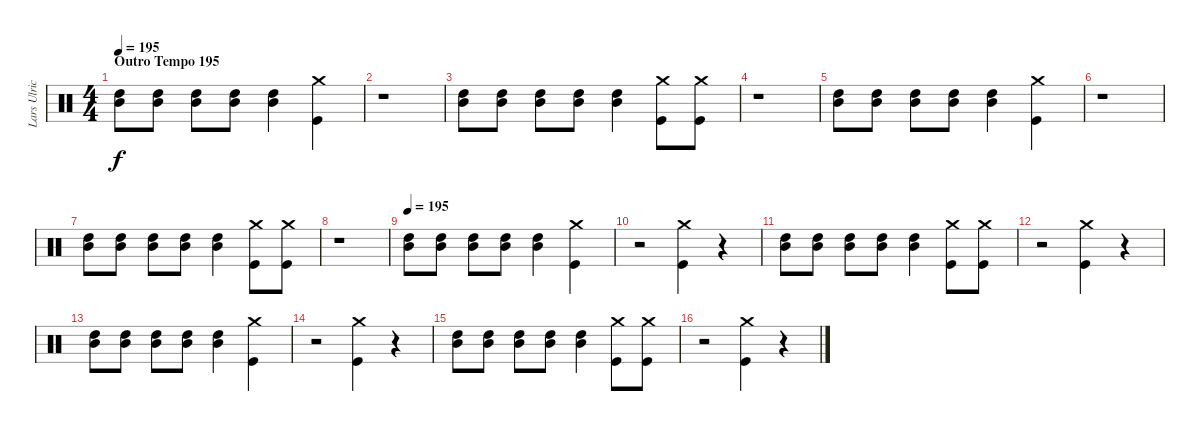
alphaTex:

\track ("Lars Ulrich (Drums)" "Lars Ulric") {instrument percussion}
\staff {score}
\articulation defaults
\ts (4 4)
\section ("" "Outro Tempo 195")
\tempo 195
\clef neutral
\ks c
("High Tom (hit)" "Mid Tom (hit)").8{dy f} ("High Tom (hit)" "Mid Tom (hit)").8 ("High Tom (hit)" "Mid Tom (hit)").8 ("High Tom (hit)" "Mid Tom (hit)").8 ("High Tom (hit)" "Mid Tom (hit)").4 ("Crash medium (hit)" "Kick (hit)").4 |
r.1 |
("High Tom (hit)" "Mid Tom (hit)").8 ("High Tom (hit)" "Mid Tom (hit)").8 ("High Tom (hit)" "Mid Tom (hit)").8 ("High Tom (hit)" "Mid Tom (hit)").8 ("High Tom (hit)" "Mid Tom (hit)").4 ("Crash medium (hit)" "Kick (hit)").8 ("Kick (hit)" "Crash medium (hit)").8 |
r.1 |
("High Tom (hit)" "Mid Tom (hit)").8 ("High Tom (hit)" "Mid Tom (hit)").8 ("High Tom (hit)" "Mid Tom (hit)").8 ("High Tom (hit)" "Mid Tom (hit)").8 ("High Tom (hit)" "Mid Tom (hit)").4 ("Crash medium (hit)" "Kick (hit)").4 |
r.1 |
("High Tom (hit)" "Mid Tom (hit)").8 ("High Tom (hit)" "Mid Tom (hit)").8 ("High Tom (hit)" "Mid Tom (hit)").8 ("High Tom (hit)" "Mid Tom (hit)").8 ("High Tom (hit)" "Mid Tom (hit)").4 ("Crash medium (hit)" "Kick (hit)").8 ("Kick (hit)" "Crash medium (hit)").8 |
r.1 |
\tempo 195
("High Tom (hit)" "Mid Tom (hit)").8 ("High Tom (hit)" "Mid Tom (hit)").8 ("High Tom (hit)" "Mid Tom (hit)").8 ("High Tom (hit)" "Mid Tom (hit)").8 ("High Tom (hit)" "Mid Tom (hit)").4 ("Crash medium (hit)" "Kick (hit)").4 |
r.2 ("Kick (hit)" "Crash medium (hit)").4 r.4 |
("High Tom (hit)" "Mid Tom (hit)").8 ("High Tom (hit)" "Mid Tom (hit)").8 ("High Tom (hit)" "Mid Tom (hit)").8 ("High Tom (hit)" "Mid Tom (hit)").8 ("High Tom (hit)" "Mid Tom (hit)").4 ("Crash medium (hit)" "Kick (hit)").8 ("Kick (hit)" "Crash medium (hit)").8 |
r.2 ("Kick (hit)" "Crash medium (hit)").4 r.4 |
("High Tom (hit)" "Mid Tom (hit)").8 ("High Tom (hit)" "Mid Tom (hit)").8 ("High Tom (hit)" "Mid Tom (hit)").8 ("High Tom (hit)" "Mid Tom (hit)").8 ("High Tom (hit)" "Mid Tom (hit)").4 ("Crash medium (hit)" "Kick (hit)").4 |
r.2 ("Kick (hit)" "Crash medium (hit)").4 r.4 |
("High Tom (hit)" "Mid Tom (hit)").8 ("High Tom (hit)" "Mid Tom (hit)").8 ("High Tom (hit)" "Mid Tom (hit)").8 ("High Tom (hit)" "Mid Tom (hit)").8 ("High Tom (hit)" "Mid Tom (hit)").4 ("Crash medium (hit)" "Kick (hit)").8 ("Kick (hit)" "Crash medium (hit)").8 |
r.2 ("Kick (hit)" "Crash medium (hit)").4 r.4
